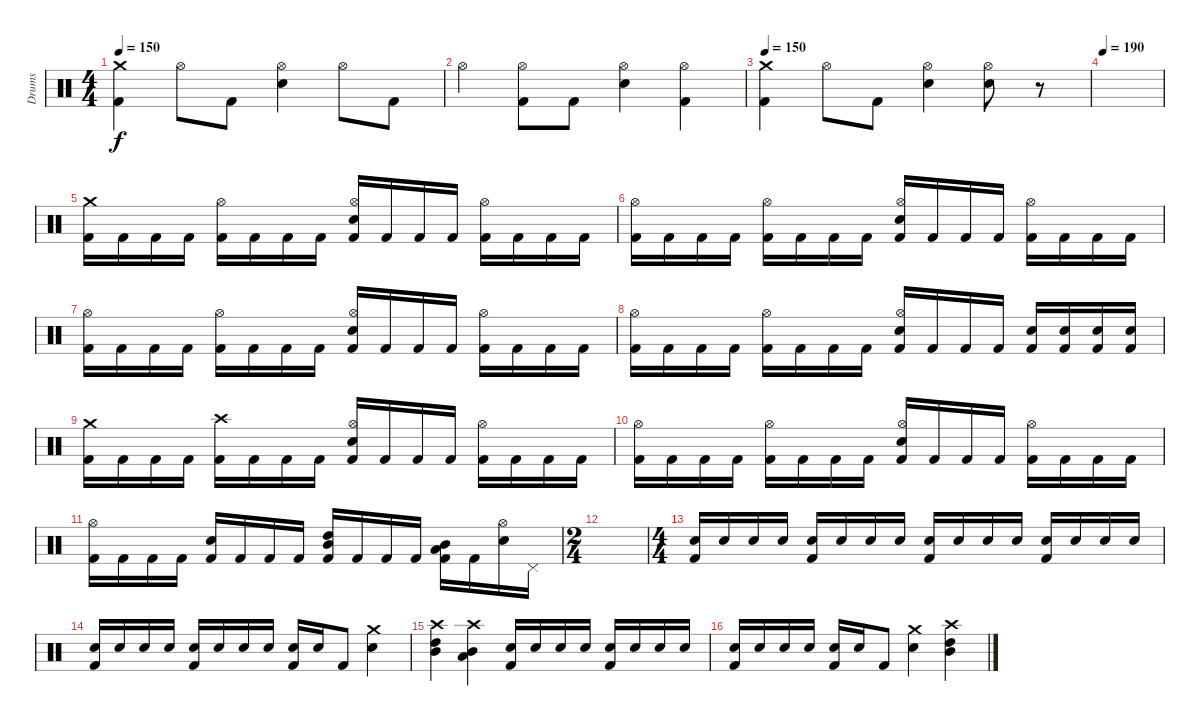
\track ("Drums" "Drums") {instrument percussion}
\staff {score}
\articulation defaults
\ts (4 4)
\tempo 150
\clef neutral
\ks c
("Crash medium (hit)" "Kick (hit) 2").4{dy f} "Hi-Hat (open)".8 "Kick (hit) 2".8 ("Hi-Hat (open)" "Electric Snare (hit)").4 "Hi-Hat (open)".8 "Kick (hit) 2".8 |
"Hi-Hat (open)".4 ("Hi-Hat (open)" "Kick (hit) 2").8 "Kick (hit) 2".8 ("Hi-Hat (open)" "Electric Snare (hit)").4 ("Hi-Hat (open)" "Kick (hit) 2").4 |
\tempo 150
("Crash medium (hit)" "Kick (hit) 2").4 "Hi-Hat (open)".8 "Kick (hit) 2".8 ("Hi-Hat (open)" "Electric Snare (hit)").4 ("Hi-Hat (open)" "Electric Snare (hit)").8 r.8 |
\tempo 190
|
("Crash medium (hit)" "Kick (hit) 2").16 "Kick (hit) 2".16 "Kick (hit) 2".16 "Kick (hit) 2".16 ("Hi-Hat (open)" "Kick (hit) 2").16 "Kick (hit) 2".16 "Kick (hit) 2".16 "Kick (hit) 2".16 ("Hi-Hat (open)" "Electric Snare (hit)" "Kick (hit) 2").16 "Kick (hit) 2".16 "Kick (hit) 2".16 "Kick (hit) 2".16 ("Hi-Hat (open)" "Kick (hit) 2").16 "Kick (hit) 2".16 "Kick (hit) 2".16 "Kick (hit) 2".16 |
("Hi-Hat (open)" "Kick (hit) 2").16 "Kick (hit) 2".16 "Kick (hit) 2".16 "Kick (hit) 2".16 ("Hi-Hat (open)" "Kick (hit) 2").16 "Kick (hit) 2".16 "Kick (hit) 2".16 "Kick (hit) 2".16 ("Hi-Hat (open)" "Electric Snare (hit)" "Kick (hit) 2").16 "Kick (hit) 2".16 "Kick (hit) 2".16 "Kick (hit) 2".16 ("Hi-Hat (open)" "Kick (hit) 2").16 "Kick (hit) 2".16 "Kick (hit) 2".16 "Kick (hit) 2".16 |
("Hi-Hat (open)" "Kick (hit) 2").16 "Kick (hit) 2".16 "Kick (hit) 2".16 "Kick (hit) 2".16 ("Hi-Hat (open)" "Kick (hit) 2").16 "Kick (hit) 2".16 "Kick (hit) 2".16 "Kick (hit) 2".16 ("Hi-Hat (open)" "Electric Snare (hit)" "Kick (hit) 2").16 "Kick (hit) 2".16 "Kick (hit) 2".16 "Kick (hit) 2".16 ("Hi-Hat (open)" "Kick (hit) 2").16 "Kick (hit) 2".16 "Kick (hit) 2".16 "Kick (hit) 2".16 |
("Hi-Hat (open)" "Kick (hit) 2").16 "Kick (hit) 2".16 "Kick (hit) 2".16 "Kick (hit) 2".16 ("Hi-Hat (open)" "Kick (hit) 2").16 "Kick (hit) 2".16 "Kick (hit) 2".16 "Kick (hit) 2".16 ("Hi-Hat (open)" "Electric Snare (hit)" "Kick (hit) 2").16 "Kick (hit) 2".16 "Kick (hit) 2".16 "Kick (hit) 2".16 ("Electric Snare (hit)" "Kick (hit) 2").16 ("Electric Snare (hit)" "Kick (hit) 2").16 ("Electric Snare (hit)" "Kick (hit) 2").16 ("Electric Snare (hit)" "Kick (hit) 2").16 |
("Crash medium (hit)" "Kick (hit) 2").16 "Kick (hit) 2".16 "Kick (hit) 2".16 "Kick (hit) 2".16 ("Crash high (hit)" "Kick (hit) 2").16 "Kick (hit) 2".16 "Kick (hit) 2".16 "Kick (hit) 2".16 ("Hi-Hat (open)" "Electric Snare (hit)" "Kick (hit) 2").16 "Kick (hit) 2".16 "Kick (hit) 2".16 "Kick (hit) 2".16 ("Hi-Hat (open)" "Kick (hit) 2").16 "Kick (hit) 2".16 "Kick (hit) 2".16 "Kick (hit) 2".16 |
("Hi-Hat (open)" "Kick (hit) 2").16 "Kick (hit) 2".16 "Kick (hit) 2".16 "Kick (hit) 2".16 ("Hi-Hat (open)" "Kick (hit) 2").16 "Kick (hit) 2".16 "Kick (hit) 2".16 "Kick (hit) 2".16 ("Hi-Hat (open)" "Electric Snare (hit)" "Kick (hit) 2").16 "Kick (hit) 2".16 "Kick (hit) 2".16 "Kick (hit) 2".16 ("Hi-Hat (open)" "Kick (hit) 2").16 "Kick (hit) 2".16 "Kick (hit) 2".16 "Kick (hit) 2".16 |
("Hi-Hat (open)" "Kick (hit) 2").16 "Kick (hit) 2".16 "Kick (hit) 2".16 "Kick (hit) 2".16 ("Electric Snare (hit)" "Kick (hit) 2").16 "Kick (hit) 2".16 "Kick (hit) 2".16 "Kick (hit) 2".16 ("High Tom (hit)" "Mid Tom (hit)" "Kick (hit) 2").16 "Kick (hit) 2".16 "Kick (hit) 2".16 "Kick (hit) 2".16 ("Mid Tom (hit)" "Low Tom (hit)" "Kick (hit) 2").16 "Kick (hit) 2".16 ("Hi-Hat (open)" "Electric Snare (hit)").16 "Pedal Hi-Hat (hit)".16 |
\ts (2 4)
|
\ts (4 4)
("Electric Snare (hit)" "Kick (hit) 2").16 "Electric Snare (hit)".16 "Electric Snare (hit)".16 "Electric Snare (hit)".16 ("Electric Snare (hit)" "Kick (hit) 2").16 "Electric Snare (hit)".16 "Electric Snare (hit)".16 "Electric Snare (hit)".16 ("Electric Snare (hit)" "Kick (hit) 2").16 "Electric Snare (hit)".16 "Electric Snare (hit)".16 "Electric Snare (hit)".16 ("Electric Snare (hit)" "Kick (hit) 2").16 "Electric Snare (hit)".16 "Electric Snare (hit)".16 "Electric Snare (hit)".16 |
("Electric Snare (hit)" "Kick (hit) 2").16 "Electric Snare (hit)".16 "Electric Snare (hit)".16 "Electric Snare (hit)".16 ("Electric Snare (hit)" "Kick (hit) 2").16 "Electric Snare (hit)".16 "Electric Snare (hit)".16 "Electric Snare (hit)".16 ("Electric Snare (hit)" "Kick (hit) 2").16 "Electric Snare (hit)".16 "Kick (hit) 2".8 ("Crash medium (hit)" "Electric Snare (hit)").4 |
("Crash high (hit)" "High Tom (hit)" "Mid Tom (hit)").4 ("Crash high (hit)" "Mid Tom (hit)" "Low Tom (hit)").4 ("Electric Snare (hit)" "Kick (hit) 2").16 "Electric Snare (hit)".16 "Electric Snare (hit)".16 "Electric Snare (hit)".16 ("Electric Snare (hit)" "Kick (hit) 2").16 "Electric Snare (hit)".16 "Electric Snare (hit)".16 "Electric Snare (hit)".16 |
("Electric Snare (hit)" "Kick (hit) 2").16 "Electric Snare (hit)".16 "Electric Snare (hit)".16 "Electric Snare (hit)".16 ("Electric Snare (hit)" "Kick (hit) 2").16 "Electric Snare (hit)".16 "Kick (hit) 2".8 ("Crash medium (hit)" "Electric Snare (hit)").4 ("Crash high (hit)" "High Tom (hit)" "Mid Tom (hit)").4
